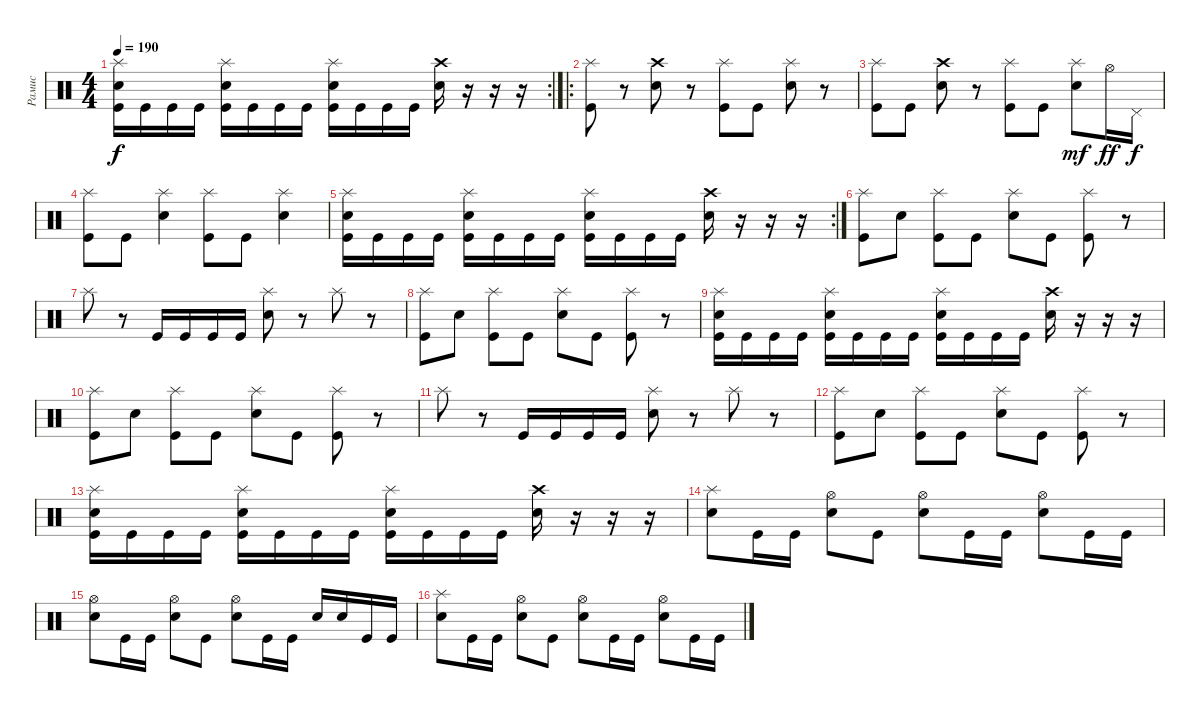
\track ("Рамис" "Рамис") {instrument percussion}
\staff {score}
\articulation defaults
\rc 2
\ts (4 4)
\tempo 190
\clef neutral
\ks c
("Splash (hit)" "Electric Snare (hit)" "Kick (hit)").16{dy f} "Kick (hit)".16 "Kick (hit)".16 "Kick (hit)".16 ("Splash (hit)" "Electric Snare (hit)" "Kick (hit)").16 "Kick (hit)".16 "Kick (hit)".16 "Kick (hit)".16 ("Splash (hit)" "Electric Snare (hit)" "Kick (hit)").16 "Kick (hit)".16 "Kick (hit)".16 "Kick (hit)".16 ("Crash high (hit)" "Electric Snare (hit)").16 r.16 r.16 r.16 |
\ro
("Splash (hit)" "Kick (hit)").8 r.8 ("Crash high (hit)" "Electric Snare (hit)").8 r.8 ("Splash (hit)" "Kick (hit)").8 "Kick (hit)".8 ("Splash (hit)" "Electric Snare (hit)").8 r.8 |
("Splash (hit)" "Kick (hit)").8 "Kick (hit)".8 ("Crash high (hit)" "Electric Snare (hit)").8 r.8 ("Splash (hit)" "Kick (hit)").8 "Kick (hit)".8 ("Splash (hit)" "Electric Snare (hit)").8{dy mf} "Hi-Hat (open)".16{dy ff} "Pedal Hi-Hat (hit)".16{dy f} |
("Splash (hit)" "Kick (hit)").8 "Kick (hit)".8 ("Splash (hit)" "Electric Snare (hit)").4 ("Splash (hit)" "Kick (hit)").8 "Kick (hit)".8 ("Splash (hit)" "Electric Snare (hit)").4 |
\rc 2
("Splash (hit)" "Electric Snare (hit)" "Kick (hit)").16 "Kick (hit)".16 "Kick (hit)".16 "Kick (hit)".16 ("Splash (hit)" "Electric Snare (hit)" "Kick (hit)").16 "Kick (hit)".16 "Kick (hit)".16 "Kick (hit)".16 ("Splash (hit)" "Electric Snare (hit)" "Kick (hit)").16 "Kick (hit)".16 "Kick (hit)".16 "Kick (hit)".16 ("Crash high (hit)" "Electric Snare (hit)").16 r.16 r.16 r.16 |
("Kick (hit)" "Splash (hit)").8 "Electric Snare (hit)".8 ("Kick (hit)" "Splash (hit)").8 "Kick (hit)".8 ("Electric Snare (hit)" "Splash (hit)").8 "Kick (hit)".8 ("Kick (hit)" "Splash (hit)").8 r.8 |
"Splash (hit)".8 r.8 "Kick (hit)".16 "Kick (hit)".16 "Kick (hit)".16 "Kick (hit)".16 ("Electric Snare (hit)" "Splash (hit)").8 r.8 "Splash (hit)".8 r.8 |
("Kick (hit)" "Splash (hit)").8 "Electric Snare (hit)".8 ("Kick (hit)" "Splash (hit)").8 "Kick (hit)".8 ("Electric Snare (hit)" "Splash (hit)").8 "Kick (hit)".8 ("Kick (hit)" "Splash (hit)").8 r.8 |
("Splash (hit)" "Electric Snare (hit)" "Kick (hit)").16 "Kick (hit)".16 "Kick (hit)".16 "Kick (hit)".16 ("Splash (hit)" "Electric Snare (hit)" "Kick (hit)").16 "Kick (hit)".16 "Kick (hit)".16 "Kick (hit)".16 ("Splash (hit)" "Electric Snare (hit)" "Kick (hit)").16 "Kick (hit)".16 "Kick (hit)".16 "Kick (hit)".16 ("Crash high (hit)" "Electric Snare (hit)").16 r.16 r.16 r.16 |
("Kick (hit)" "Splash (hit)").8 "Electric Snare (hit)".8 ("Kick (hit)" "Splash (hit)").8 "Kick (hit)".8 ("Electric Snare (hit)" "Splash (hit)").8 "Kick (hit)".8 ("Kick (hit)" "Splash (hit)").8 r.8 |
"Splash (hit)".8 r.8 "Kick (hit)".16 "Kick (hit)".16 "Kick (hit)".16 "Kick (hit)".16 ("Electric Snare (hit)" "Splash (hit)").8 r.8 "Splash (hit)".8 r.8 |
("Kick (hit)" "Splash (hit)").8 "Electric Snare (hit)".8 ("Kick (hit)" "Splash (hit)").8 "Kick (hit)".8 ("Electric Snare (hit)" "Splash (hit)").8 "Kick (hit)".8 ("Kick (hit)" "Splash (hit)").8 r.8 |
("Splash (hit)" "Electric Snare (hit)" "Kick (hit)").16 "Kick (hit)".16 "Kick (hit)".16 "Kick (hit)".16 ("Splash (hit)" "Electric Snare (hit)" "Kick (hit)").16 "Kick (hit)".16 "Kick (hit)".16 "Kick (hit)".16 ("Splash (hit)" "Electric Snare (hit)" "Kick (hit)").16 "Kick (hit)".16 "Kick (hit)".16 "Kick (hit)".16 ("Crash high (hit)" "Electric Snare (hit)").16 r.16 r.16 r.16 |
("Splash (hit)" "Electric Snare (hit)").8 "Kick (hit)".16 "Kick (hit)".16 ("Hi-Hat (open)" "Electric Snare (hit)").8 "Kick (hit)".8 ("Hi-Hat (open)" "Electric Snare (hit)").8 "Kick (hit)".16 "Kick (hit)".16 ("Hi-Hat (open)" "Electric Snare (hit)").8 "Kick (hit)".16 "Kick (hit)".16 |
("Hi-Hat (open)" "Electric Snare (hit)").8 "Kick (hit)".16 "Kick (hit)".16 ("Hi-Hat (open)" "Electric Snare (hit)").8 "Kick (hit)".8 ("Hi-Hat (open)" "Electric Snare (hit)").8 "Kick (hit)".16 "Kick (hit)".16 "Electric Snare (hit)".16 "Electric Snare (hit)".16 "Kick (hit)".16 "Kick (hit)".16 |
("Splash (hit)" "Electric Snare (hit)").8 "Kick (hit)".16 "Kick (hit)".16 ("Hi-Hat (open)" "Electric Snare (hit)").8 "Kick (hit)".8 ("Hi-Hat (open)" "Electric Snare (hit)").8 "Kick (hit)".16 "Kick (hit)".16 ("Hi-Hat (open)" "Electric Snare (hit)").8 "Kick (hit)".16 "Kick (hit)".16
